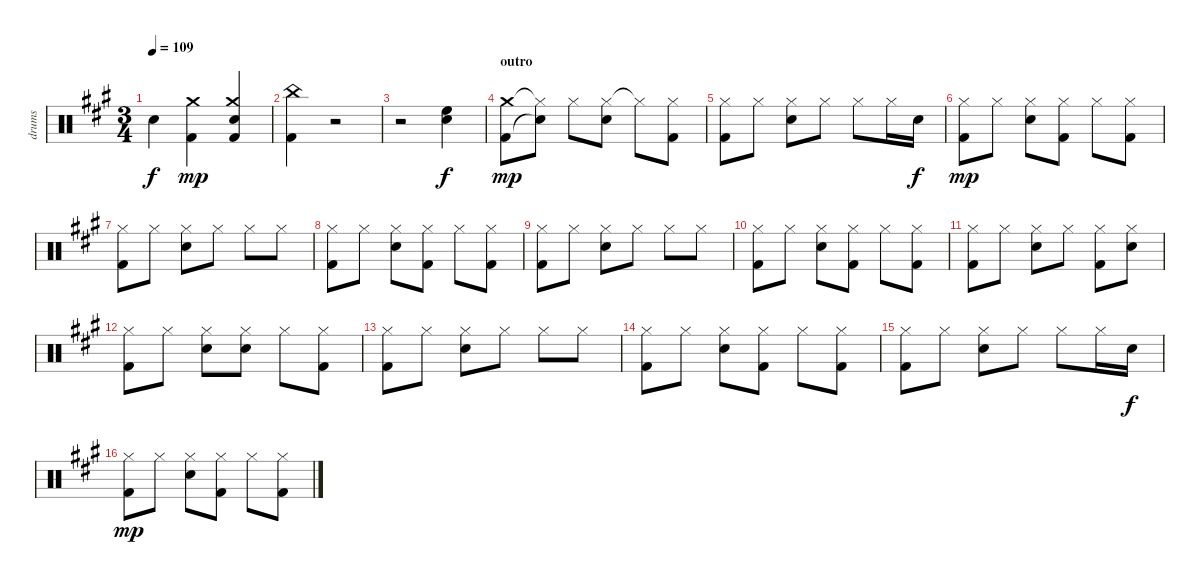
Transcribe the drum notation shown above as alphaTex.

\track ("drums" "drums") {instrument percussion}
\staff {score}
\articulation defaults
\ts (3 4)
\tempo 109
\clef neutral
\ks a "Snare (hit) 2".4{dy f}
("Crash medium (hit)" "Kick (hit) 2").4{dy mp} ("Crash medium (hit)" "Snare (hit) 2" "Kick (hit) 2").4 |
("China (hit)" "Kick (hit) 2").4 r.2 |
r.2 ("Snare (hit) 2" "High Floor Tom (hit)").4{dy f} |
\section ("" "outro")
("Crash medium (hit)" "Kick (hit) 2").8{dy mp} ("Hi-Hat (closed)"{t} "Snare (hit)"{t}).8 "Hi-Hat (closed)".8 ("Hi-Hat (closed)" "Snare (hit) 2").8 "Hi-Hat (closed)"{t}.8 ("Hi-Hat (closed)" "Kick (hit) 2").8 |
("Hi-Hat (closed)" "Kick (hit) 2").8 "Hi-Hat (closed)".8 ("Hi-Hat (closed)" "Snare (hit) 2").8 "Hi-Hat (closed)".8 "Hi-Hat (closed)".8 "Hi-Hat (closed)".16 "Snare (hit) 2".16{dy f} |
("Hi-Hat (closed)" "Kick (hit) 2").8{dy mp} "Hi-Hat (closed)".8 ("Hi-Hat (closed)" "Snare (hit) 2").8 ("Hi-Hat (closed)" "Kick (hit) 2").8 "Hi-Hat (closed)".8 ("Hi-Hat (closed)" "Kick (hit) 2").8 |
("Hi-Hat (closed)" "Kick (hit) 2").8 "Hi-Hat (closed)".8 ("Hi-Hat (closed)" "Snare (hit) 2").8 "Hi-Hat (closed)".8 "Hi-Hat (closed)".8 "Hi-Hat (closed)".8 |
("Hi-Hat (closed)" "Kick (hit) 2").8 "Hi-Hat (closed)".8 ("Hi-Hat (closed)" "Snare (hit) 2").8 ("Hi-Hat (closed)" "Kick (hit) 2").8 "Hi-Hat (closed)".8 ("Hi-Hat (closed)" "Kick (hit) 2").8 |
("Hi-Hat (closed)" "Kick (hit) 2").8 "Hi-Hat (closed)".8 ("Hi-Hat (closed)" "Snare (hit) 2").8 "Hi-Hat (closed)".8 "Hi-Hat (closed)".8 "Hi-Hat (closed)".8 |
("Hi-Hat (closed)" "Kick (hit) 2").8 "Hi-Hat (closed)".8 ("Hi-Hat (closed)" "Snare (hit) 2").8 ("Hi-Hat (closed)" "Kick (hit) 2").8 "Hi-Hat (closed)".8 ("Hi-Hat (closed)" "Kick (hit) 2").8 |
("Hi-Hat (closed)" "Kick (hit) 2").8 "Hi-Hat (closed)".8 ("Hi-Hat (closed)" "Snare (hit) 2").8 "Hi-Hat (closed)".8 ("Hi-Hat (closed)" "Kick (hit) 2").8 ("Hi-Hat (closed)" "Snare (hit) 2").8 |
("Hi-Hat (closed)" "Kick (hit) 2").8 "Hi-Hat (closed)".8 ("Hi-Hat (closed)" "Snare (hit) 2").8 ("Hi-Hat (closed)" "Snare (hit) 2").8 "Hi-Hat (closed)".8 ("Hi-Hat (closed)" "Kick (hit) 2").8 |
("Hi-Hat (closed)" "Kick (hit) 2").8 "Hi-Hat (closed)".8 ("Hi-Hat (closed)" "Snare (hit) 2").8 "Hi-Hat (closed)".8 "Hi-Hat (closed)".8 "Hi-Hat (closed)".8 |
("Hi-Hat (closed)" "Kick (hit) 2").8 "Hi-Hat (closed)".8 ("Hi-Hat (closed)" "Snare (hit) 2").8 ("Hi-Hat (closed)" "Kick (hit) 2").8 "Hi-Hat (closed)".8 ("Hi-Hat (closed)" "Kick (hit) 2").8 |
("Hi-Hat (closed)" "Kick (hit) 2").8 "Hi-Hat (closed)".8 ("Hi-Hat (closed)" "Snare (hit) 2").8 "Hi-Hat (closed)".8 "Hi-Hat (closed)".8 "Hi-Hat (closed)".16 "Snare (hit) 2".16{dy f} |
("Hi-Hat (closed)" "Kick (hit) 2").8{dy mp} "Hi-Hat (closed)".8 ("Hi-Hat (closed)" "Snare (hit) 2").8 ("Hi-Hat (closed)" "Kick (hit) 2").8 "Hi-Hat (closed)".8 ("Hi-Hat (closed)" "Kick (hit) 2").8
